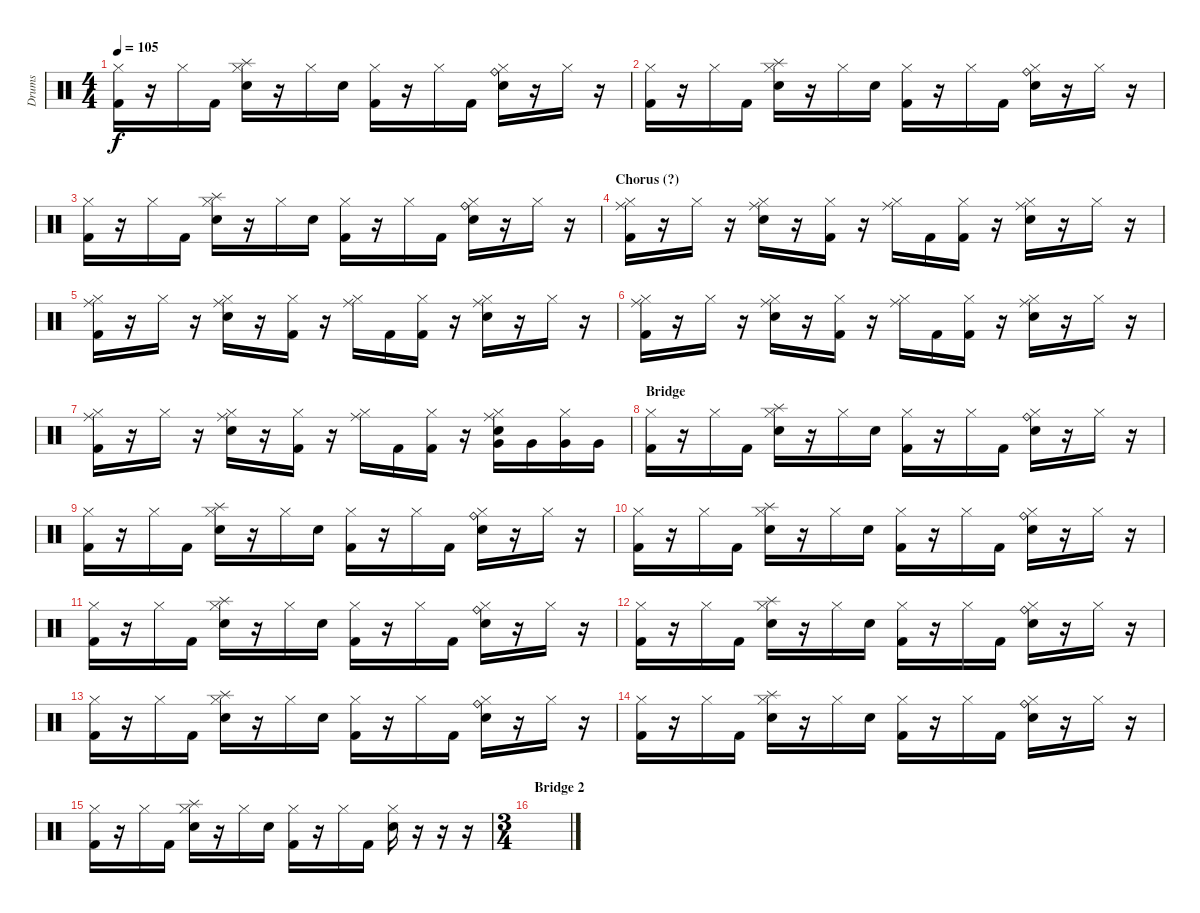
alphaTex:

\track ("Drums" "Drums") {instrument percussion}
\staff {score}
\articulation defaults
\ts (4 4)
\tempo 105
\clef neutral
\ks c
("Hi-Hat (closed)" "Kick (hit) 2").16{dy f} r.16 "Hi-Hat (closed)".16 "Kick (hit) 2".16 ("Hi-Hat (closed)" "Electric Snare (hit)" "Splash (hit)").16 r.16 "Hi-Hat (closed)".16 "Snare (hit) 2".16 ("Hi-Hat (closed)" "Kick (hit) 2").16 r.16 "Hi-Hat (closed)".16 "Kick (hit) 2".16 ("Hi-Hat (closed)" "Electric Snare (hit)" "Ride (bell)").16 r.16 "Hi-Hat (closed)".16 r.16 |
("Hi-Hat (closed)" "Kick (hit) 2").16 r.16 "Hi-Hat (closed)".16 "Kick (hit) 2".16 ("Hi-Hat (closed)" "Electric Snare (hit)" "Splash (hit)").16 r.16 "Hi-Hat (closed)".16 "Snare (hit) 2".16 ("Hi-Hat (closed)" "Kick (hit) 2").16 r.16 "Hi-Hat (closed)".16 "Kick (hit) 2".16 ("Hi-Hat (closed)" "Electric Snare (hit)" "Ride (bell)").16 r.16 "Hi-Hat (closed)".16 r.16 |
("Hi-Hat (closed)" "Kick (hit) 2").16 r.16 "Hi-Hat (closed)".16 "Kick (hit) 2".16 ("Hi-Hat (closed)" "Electric Snare (hit)" "Splash (hit)").16 r.16 "Hi-Hat (closed)".16 "Snare (hit) 2".16 ("Hi-Hat (closed)" "Kick (hit) 2").16 r.16 "Hi-Hat (closed)".16 "Kick (hit) 2".16 ("Hi-Hat (closed)" "Electric Snare (hit)" "Ride (bell)").16 r.16 "Hi-Hat (closed)".16 r.16 |
\section ("" "Chorus (?)")
("Hi-Hat (closed)" "Kick (hit) 2" "Ride (middle)").16 r.16 "Hi-Hat (closed)".16 r.16 ("Hi-Hat (closed)" "Snare (hit) 2" "Ride (middle)").16 r.16 ("Hi-Hat (closed)" "Kick (hit) 2").16 r.16 ("Hi-Hat (closed)" "Ride (middle)").16 "Kick (hit) 2".16 ("Hi-Hat (closed)" "Kick (hit) 2").16 r.16 ("Hi-Hat (closed)" "Snare (hit) 2" "Ride (middle)").16 r.16 "Hi-Hat (closed)".16 r.16 |
("Hi-Hat (closed)" "Kick (hit) 2" "Ride (middle)").16 r.16 "Hi-Hat (closed)".16 r.16 ("Hi-Hat (closed)" "Snare (hit) 2" "Ride (middle)").16 r.16 ("Hi-Hat (closed)" "Kick (hit) 2").16 r.16 ("Hi-Hat (closed)" "Ride (middle)").16 "Kick (hit) 2".16 ("Hi-Hat (closed)" "Kick (hit) 2").16 r.16 ("Hi-Hat (closed)" "Snare (hit) 2" "Ride (middle)").16 r.16 "Hi-Hat (closed)".16 r.16 |
("Hi-Hat (closed)" "Kick (hit) 2" "Ride (middle)").16 r.16 "Hi-Hat (closed)".16 r.16 ("Hi-Hat (closed)" "Snare (hit) 2" "Ride (middle)").16 r.16 ("Hi-Hat (closed)" "Kick (hit) 2").16 r.16 ("Hi-Hat (closed)" "Ride (middle)").16 "Kick (hit) 2".16 ("Hi-Hat (closed)" "Kick (hit) 2").16 r.16 ("Hi-Hat (closed)" "Snare (hit) 2" "Ride (middle)").16 r.16 "Hi-Hat (closed)".16 r.16 |
("Hi-Hat (closed)" "Kick (hit) 2" "Ride (middle)").16 r.16 "Hi-Hat (closed)".16 r.16 ("Hi-Hat (closed)" "Snare (hit) 2" "Ride (middle)").16 r.16 ("Hi-Hat (closed)" "Kick (hit) 2").16 r.16 ("Hi-Hat (closed)" "Ride (middle)").16 "Kick (hit) 2".16 ("Hi-Hat (closed)" "Kick (hit) 2").16 r.16 ("Hi-Hat (closed)" "Snare (hit) 2" "Ride (middle)" "Very Low Tom (hit)").16 "Very Low Tom (hit)".16 ("Hi-Hat (closed)" "Very Low Tom (hit)").16 "Very Low Tom (hit)".16 |
\section ("" "Bridge")
("Hi-Hat (closed)" "Kick (hit) 2").16 r.16 "Hi-Hat (closed)".16 "Kick (hit) 2".16 ("Hi-Hat (closed)" "Electric Snare (hit)" "Splash (hit)").16 r.16 "Hi-Hat (closed)".16 "Snare (hit) 2".16 ("Hi-Hat (closed)" "Kick (hit) 2").16 r.16 "Hi-Hat (closed)".16 "Kick (hit) 2".16 ("Hi-Hat (closed)" "Electric Snare (hit)" "Ride (bell)").16 r.16 "Hi-Hat (closed)".16 r.16 |
("Hi-Hat (closed)" "Kick (hit) 2").16 r.16 "Hi-Hat (closed)".16 "Kick (hit) 2".16 ("Hi-Hat (closed)" "Electric Snare (hit)" "Splash (hit)").16 r.16 "Hi-Hat (closed)".16 "Snare (hit) 2".16 ("Hi-Hat (closed)" "Kick (hit) 2").16 r.16 "Hi-Hat (closed)".16 "Kick (hit) 2".16 ("Hi-Hat (closed)" "Electric Snare (hit)" "Ride (bell)").16 r.16 "Hi-Hat (closed)".16 r.16 |
("Hi-Hat (closed)" "Kick (hit) 2").16 r.16 "Hi-Hat (closed)".16 "Kick (hit) 2".16 ("Hi-Hat (closed)" "Electric Snare (hit)" "Splash (hit)").16 r.16 "Hi-Hat (closed)".16 "Snare (hit) 2".16 ("Hi-Hat (closed)" "Kick (hit) 2").16 r.16 "Hi-Hat (closed)".16 "Kick (hit) 2".16 ("Hi-Hat (closed)" "Electric Snare (hit)" "Ride (bell)").16 r.16 "Hi-Hat (closed)".16 r.16 |
("Hi-Hat (closed)" "Kick (hit) 2").16 r.16 "Hi-Hat (closed)".16 "Kick (hit) 2".16 ("Hi-Hat (closed)" "Electric Snare (hit)" "Splash (hit)").16 r.16 "Hi-Hat (closed)".16 "Snare (hit) 2".16 ("Hi-Hat (closed)" "Kick (hit) 2").16 r.16 "Hi-Hat (closed)".16 "Kick (hit) 2".16 ("Hi-Hat (closed)" "Electric Snare (hit)" "Ride (bell)").16 r.16 "Hi-Hat (closed)".16 r.16 |
("Hi-Hat (closed)" "Kick (hit) 2").16 r.16 "Hi-Hat (closed)".16 "Kick (hit) 2".16 ("Hi-Hat (closed)" "Electric Snare (hit)" "Splash (hit)").16 r.16 "Hi-Hat (closed)".16 "Snare (hit) 2".16 ("Hi-Hat (closed)" "Kick (hit) 2").16 r.16 "Hi-Hat (closed)".16 "Kick (hit) 2".16 ("Hi-Hat (closed)" "Electric Snare (hit)" "Ride (bell)").16 r.16 "Hi-Hat (closed)".16 r.16 |
("Hi-Hat (closed)" "Kick (hit) 2").16 r.16 "Hi-Hat (closed)".16 "Kick (hit) 2".16 ("Hi-Hat (closed)" "Electric Snare (hit)" "Splash (hit)").16 r.16 "Hi-Hat (closed)".16 "Snare (hit) 2".16 ("Hi-Hat (closed)" "Kick (hit) 2").16 r.16 "Hi-Hat (closed)".16 "Kick (hit) 2".16 ("Hi-Hat (closed)" "Electric Snare (hit)" "Ride (bell)").16 r.16 "Hi-Hat (closed)".16 r.16 |
("Hi-Hat (closed)" "Kick (hit) 2").16 r.16 "Hi-Hat (closed)".16 "Kick (hit) 2".16 ("Hi-Hat (closed)" "Electric Snare (hit)" "Splash (hit)").16 r.16 "Hi-Hat (closed)".16 "Snare (hit) 2".16 ("Hi-Hat (closed)" "Kick (hit) 2").16 r.16 "Hi-Hat (closed)".16 "Kick (hit) 2".16 ("Hi-Hat (closed)" "Electric Snare (hit)" "Ride (bell)").16 r.16 "Hi-Hat (closed)".16 r.16 |
("Hi-Hat (closed)" "Kick (hit) 2").16 r.16 "Hi-Hat (closed)".16 "Kick (hit) 2".16 ("Hi-Hat (closed)" "Electric Snare (hit)" "Splash (hit)").16 r.16 "Hi-Hat (closed)".16 "Snare (hit) 2".16 ("Hi-Hat (closed)" "Kick (hit) 2").16 r.16 "Hi-Hat (closed)".16 "Kick (hit) 2".16 ("Hi-Hat (closed)" "Electric Snare (hit)").16 r.16 r.16 r.16 |
\ts (3 4)
\section ("" "Bridge 2")
